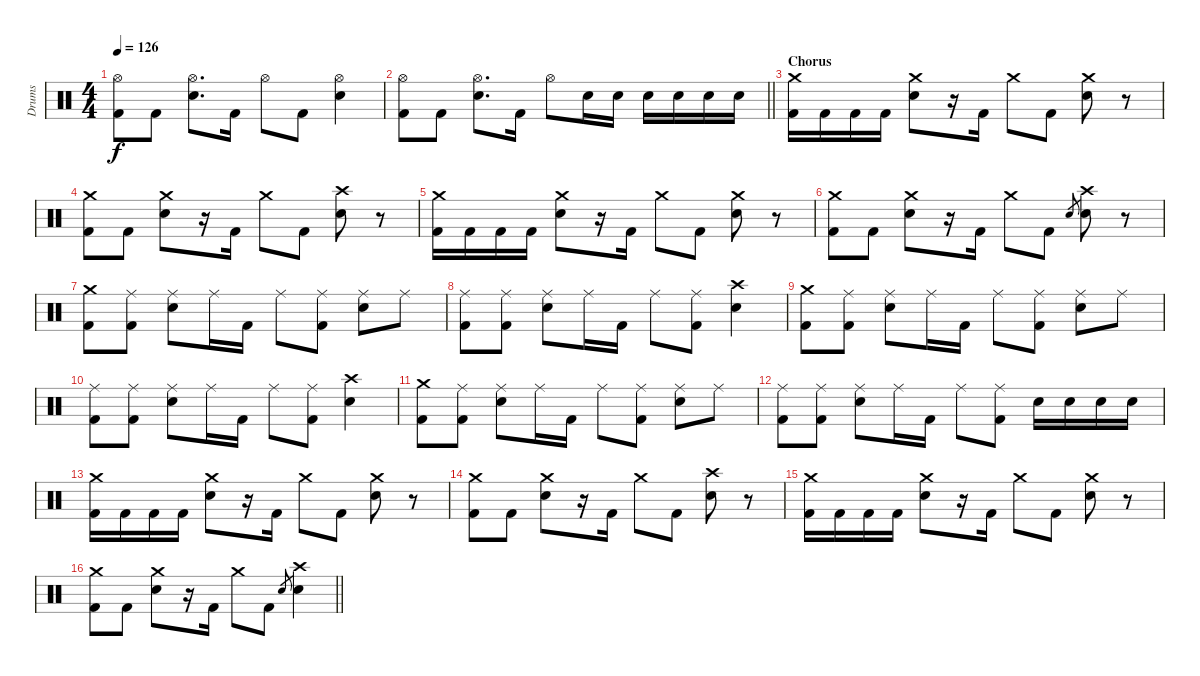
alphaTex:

\track ("Drums" "Drums") {instrument percussion}
\staff {score}
\articulation defaults
\ts (4 4)
\tempo 126
\clef neutral
\ks c
("Hi-Hat (open)" "Kick (hit) 2").8{dy f} "Kick (hit) 2".8 ("Hi-Hat (open)" "Electric Snare (hit)").8{d} "Kick (hit) 2".16 "Hi-Hat (open)".8 "Kick (hit) 2".8 ("Hi-Hat (open)" "Electric Snare (hit)").4 |
\barLineRight lightlight
("Hi-Hat (open)" "Kick (hit) 2").8 "Kick (hit) 2".8 ("Hi-Hat (open)" "Electric Snare (hit)").8{d} "Kick (hit) 2".16 "Hi-Hat (open)".8 "Electric Snare (hit)".16 "Electric Snare (hit)".16 "Electric Snare (hit)".16 "Electric Snare (hit)".16 "Electric Snare (hit)".16 "Electric Snare (hit)".16 |
\section ("" "Chorus")
("Crash medium (hit)" "Kick (hit) 2").16 "Kick (hit) 2".16 "Kick (hit) 2".16 "Kick (hit) 2".16 ("Crash medium (hit)" "Electric Snare (hit)").8 r.16 "Kick (hit) 2".16 "Crash medium (hit)".8 "Kick (hit) 2".8 ("Crash medium (hit)" "Electric Snare (hit)").8 r.8 |
("Crash medium (hit)" "Kick (hit) 2").8 "Kick (hit) 2".8 ("Crash medium (hit)" "Electric Snare (hit)").8 r.16 "Kick (hit) 2".16 "Crash medium (hit)".8 "Kick (hit) 2".8 ("Crash high (hit)" "Electric Snare (hit)").8 r.8 |
("Crash medium (hit)" "Kick (hit) 2").16 "Kick (hit) 2".16 "Kick (hit) 2".16 "Kick (hit) 2".16 ("Crash medium (hit)" "Electric Snare (hit)").8 r.16 "Kick (hit) 2".16 "Crash medium (hit)".8 "Kick (hit) 2".8 ("Crash medium (hit)" "Electric Snare (hit)").8 r.8 |
("Crash medium (hit)" "Kick (hit) 2").8 "Kick (hit) 2".8 ("Crash medium (hit)" "Electric Snare (hit)").8 r.16 "Kick (hit) 2".16 "Crash medium (hit)".8 "Kick (hit) 2".8 "Electric Snare (hit)".8{gr} ("Crash high (hit)" "Electric Snare (hit)").8 r.8 |
("Crash medium (hit)" "Kick (hit) 2").8 ("Ride (middle)" "Kick (hit) 2").8 ("Ride (middle)" "Electric Snare (hit)").8 "Ride (middle)".16 "Kick (hit) 2".16 "Ride (middle)".8 ("Ride (middle)" "Kick (hit) 2").8 ("Ride (middle)" "Electric Snare (hit)").8 "Ride (middle)".8 |
("Ride (middle)" "Kick (hit) 2").8 ("Ride (middle)" "Kick (hit) 2").8 ("Ride (middle)" "Electric Snare (hit)").8 "Ride (middle)".16 "Kick (hit) 2".16 "Ride (middle)".8 ("Ride (middle)" "Kick (hit) 2").8 ("Crash high (hit)" "Electric Snare (hit)").4 |
("Crash medium (hit)" "Kick (hit) 2").8 ("Ride (middle)" "Kick (hit) 2").8 ("Ride (middle)" "Electric Snare (hit)").8 "Ride (middle)".16 "Kick (hit) 2".16 "Ride (middle)".8 ("Ride (middle)" "Kick (hit) 2").8 ("Ride (middle)" "Electric Snare (hit)").8 "Ride (middle)".8 |
("Ride (middle)" "Kick (hit) 2").8 ("Ride (middle)" "Kick (hit) 2").8 ("Ride (middle)" "Electric Snare (hit)").8 "Ride (middle)".16 "Kick (hit) 2".16 "Ride (middle)".8 ("Ride (middle)" "Kick (hit) 2").8 ("Crash high (hit)" "Electric Snare (hit)").4 |
("Crash medium (hit)" "Kick (hit) 2").8 ("Ride (middle)" "Kick (hit) 2").8 ("Ride (middle)" "Electric Snare (hit)").8 "Ride (middle)".16 "Kick (hit) 2".16 "Ride (middle)".8 ("Ride (middle)" "Kick (hit) 2").8 ("Ride (middle)" "Electric Snare (hit)").8 "Ride (middle)".8 |
("Ride (middle)" "Kick (hit) 2").8 ("Ride (middle)" "Kick (hit) 2").8 ("Ride (middle)" "Electric Snare (hit)").8 "Ride (middle)".16 "Kick (hit) 2".16 "Ride (middle)".8 ("Ride (middle)" "Kick (hit) 2").8 "Electric Snare (hit)".16 "Electric Snare (hit)".16 "Electric Snare (hit)".16 "Electric Snare (hit)".16 |
("Crash medium (hit)" "Kick (hit) 2").16 "Kick (hit) 2".16 "Kick (hit) 2".16 "Kick (hit) 2".16 ("Crash medium (hit)" "Electric Snare (hit)").8 r.16 "Kick (hit) 2".16 "Crash medium (hit)".8 "Kick (hit) 2".8 ("Crash medium (hit)" "Electric Snare (hit)").8 r.8 |
("Crash medium (hit)" "Kick (hit) 2").8 "Kick (hit) 2".8 ("Crash medium (hit)" "Electric Snare (hit)").8 r.16 "Kick (hit) 2".16 "Crash medium (hit)".8 "Kick (hit) 2".8 ("Crash high (hit)" "Electric Snare (hit)").8 r.8 |
("Crash medium (hit)" "Kick (hit) 2").16 "Kick (hit) 2".16 "Kick (hit) 2".16 "Kick (hit) 2".16 ("Crash medium (hit)" "Electric Snare (hit)").8 r.16 "Kick (hit) 2".16 "Crash medium (hit)".8 "Kick (hit) 2".8 ("Crash medium (hit)" "Electric Snare (hit)").8 r.8 |
\barLineRight lightlight
("Crash medium (hit)" "Kick (hit) 2").8 "Kick (hit) 2".8 ("Crash medium (hit)" "Electric Snare (hit)").8 r.16 "Kick (hit) 2".16 "Crash medium (hit)".8 "Kick (hit) 2".8 "Electric Snare (hit)".8{gr} ("Crash high (hit)" "Electric Snare (hit)").4
